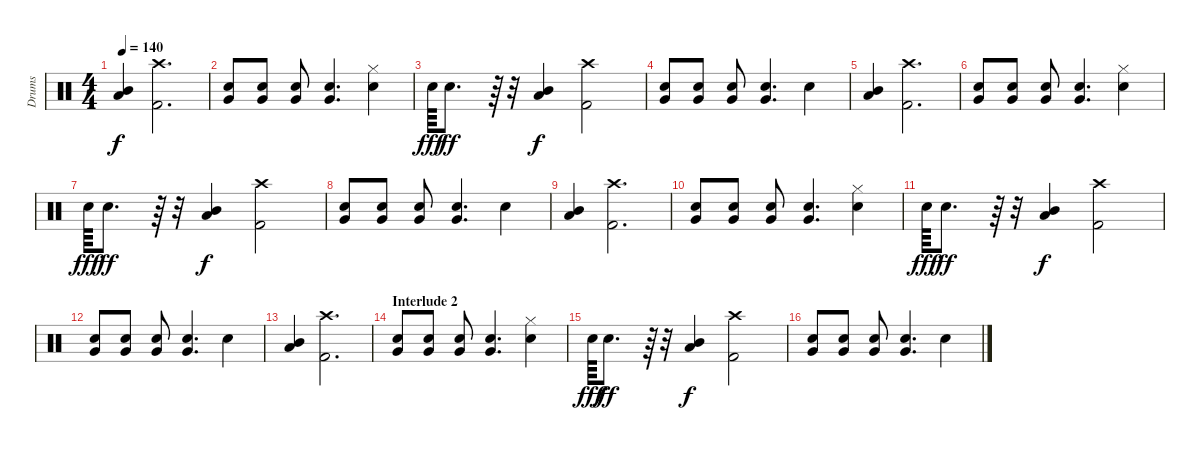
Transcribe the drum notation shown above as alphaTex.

\track ("Drums" "Drums") {instrument percussion}
\staff {score}
\articulation defaults
\ts (4 4)
\tempo 140
\clef neutral
\ks c
("Mid Tom (hit)" "Low Tom (hit)").4{dy f} ("Crash high (hit)" "Kick (hit) 2").2{d} |
("Very Low Tom (hit)" "Snare (hit) 2").8 ("Very Low Tom (hit)" "Snare (hit) 2").8 ("Very Low Tom (hit)" "Snare (hit) 2").8 ("Very Low Tom (hit)" "Snare (hit) 2").4{d} ("Hi-Hat (closed)" "Snare (hit) 2").4 |
"Snare (hit) 2".64{dy fff} "Snare (hit) 2".8{d dy ff} r.64 r.32 ("Mid Tom (hit)" "Low Tom (hit)").4{dy f} ("Crash high (hit)" "Kick (hit) 2").2 |
("Very Low Tom (hit)" "Snare (hit) 2").8 ("Very Low Tom (hit)" "Snare (hit) 2").8 ("Very Low Tom (hit)" "Snare (hit) 2").8 ("Very Low Tom (hit)" "Snare (hit) 2").4{d} "Snare (hit) 2".4 |
("Mid Tom (hit)" "Low Tom (hit)").4 ("Crash high (hit)" "Kick (hit) 2").2{d} |
("Very Low Tom (hit)" "Snare (hit) 2").8 ("Very Low Tom (hit)" "Snare (hit) 2").8 ("Very Low Tom (hit)" "Snare (hit) 2").8 ("Very Low Tom (hit)" "Snare (hit) 2").4{d} ("Hi-Hat (closed)" "Snare (hit) 2").4 |
"Snare (hit) 2".64{dy fff} "Snare (hit) 2".8{d dy ff} r.64 r.32 ("Mid Tom (hit)" "Low Tom (hit)").4{dy f} ("Crash high (hit)" "Kick (hit) 2").2 |
("Very Low Tom (hit)" "Snare (hit) 2").8 ("Very Low Tom (hit)" "Snare (hit) 2").8 ("Very Low Tom (hit)" "Snare (hit) 2").8 ("Very Low Tom (hit)" "Snare (hit) 2").4{d} "Snare (hit) 2".4 |
("Mid Tom (hit)" "Low Tom (hit)").4 ("Crash high (hit)" "Kick (hit) 2").2{d} |
("Very Low Tom (hit)" "Snare (hit) 2").8 ("Very Low Tom (hit)" "Snare (hit) 2").8 ("Very Low Tom (hit)" "Snare (hit) 2").8 ("Very Low Tom (hit)" "Snare (hit) 2").4{d} ("Hi-Hat (closed)" "Snare (hit) 2").4 |
"Snare (hit) 2".64{dy fff} "Snare (hit) 2".8{d dy ff} r.64 r.32 ("Mid Tom (hit)" "Low Tom (hit)").4{dy f} ("Crash high (hit)" "Kick (hit) 2").2 |
("Very Low Tom (hit)" "Snare (hit) 2").8 ("Very Low Tom (hit)" "Snare (hit) 2").8 ("Very Low Tom (hit)" "Snare (hit) 2").8 ("Very Low Tom (hit)" "Snare (hit) 2").4{d} "Snare (hit) 2".4 |
("Mid Tom (hit)" "Low Tom (hit)").4 ("Crash high (hit)" "Kick (hit) 2").2{d} |
\section ("" "Interlude 2")
("Very Low Tom (hit)" "Snare (hit) 2").8 ("Very Low Tom (hit)" "Snare (hit) 2").8 ("Very Low Tom (hit)" "Snare (hit) 2").8 ("Very Low Tom (hit)" "Snare (hit) 2").4{d} ("Hi-Hat (closed)" "Snare (hit) 2").4 |
"Snare (hit) 2".64{dy fff} "Snare (hit) 2".8{d dy ff} r.64 r.32 ("Mid Tom (hit)" "Low Tom (hit)").4{dy f} ("Crash high (hit)" "Kick (hit) 2").2 |
("Very Low Tom (hit)" "Snare (hit) 2").8 ("Very Low Tom (hit)" "Snare (hit) 2").8 ("Very Low Tom (hit)" "Snare (hit) 2").8 ("Very Low Tom (hit)" "Snare (hit) 2").4{d} "Snare (hit) 2".4
